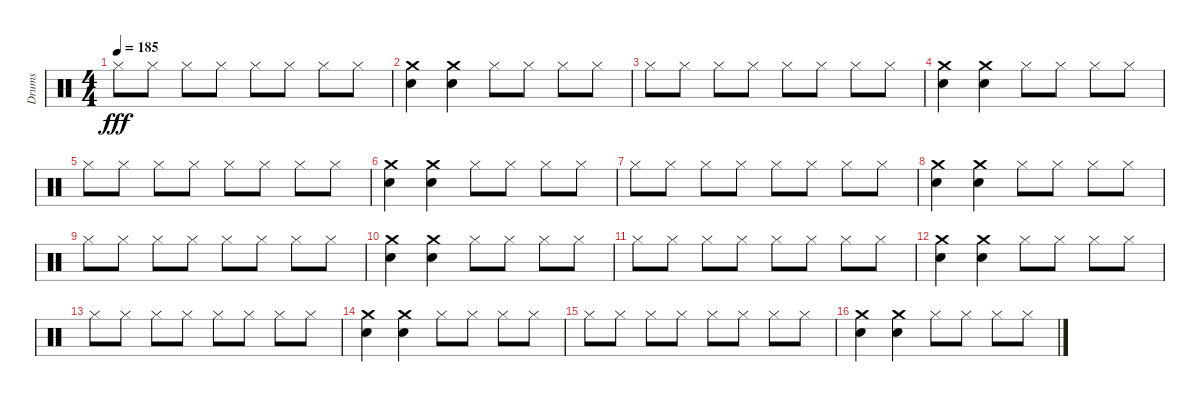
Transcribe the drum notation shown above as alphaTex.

\track ("Drums" "Drums") {instrument percussion}
\staff {score}
\articulation defaults
\ts (4 4)
\tempo 185
\clef neutral
\ks c "Hi-Hat (closed)".8{dy fff} "Hi-Hat (closed)".8 "Hi-Hat (closed)".8 "Hi-Hat (closed)".8 "Hi-Hat (closed)".8 "Hi-Hat (closed)".8 "Hi-Hat (closed)".8 "Hi-Hat (closed)".8
|
("Crash medium (hit)" "Snare (hit) 2").4 ("Crash medium (hit)" "Snare (hit) 2").4 "Hi-Hat (closed)".8 "Hi-Hat (closed)".8 "Hi-Hat (closed)".8 "Hi-Hat (closed)".8 |
"Hi-Hat (closed)".8 "Hi-Hat (closed)".8 "Hi-Hat (closed)".8 "Hi-Hat (closed)".8 "Hi-Hat (closed)".8 "Hi-Hat (closed)".8 "Hi-Hat (closed)".8 "Hi-Hat (closed)".8 |
("Crash medium (hit)" "Snare (hit) 2").4 ("Crash medium (hit)" "Snare (hit) 2").4 "Hi-Hat (closed)".8 "Hi-Hat (closed)".8 "Hi-Hat (closed)".8 "Hi-Hat (closed)".8 |
"Hi-Hat (closed)".8 "Hi-Hat (closed)".8 "Hi-Hat (closed)".8 "Hi-Hat (closed)".8 "Hi-Hat (closed)".8 "Hi-Hat (closed)".8 "Hi-Hat (closed)".8 "Hi-Hat (closed)".8 |
("Crash medium (hit)" "Snare (hit) 2").4 ("Crash medium (hit)" "Snare (hit) 2").4 "Hi-Hat (closed)".8 "Hi-Hat (closed)".8 "Hi-Hat (closed)".8 "Hi-Hat (closed)".8 |
"Hi-Hat (closed)".8 "Hi-Hat (closed)".8 "Hi-Hat (closed)".8 "Hi-Hat (closed)".8 "Hi-Hat (closed)".8 "Hi-Hat (closed)".8 "Hi-Hat (closed)".8 "Hi-Hat (closed)".8 |
("Crash medium (hit)" "Snare (hit) 2").4 ("Crash medium (hit)" "Snare (hit) 2").4 "Hi-Hat (closed)".8 "Hi-Hat (closed)".8 "Hi-Hat (closed)".8 "Hi-Hat (closed)".8 |
"Hi-Hat (closed)".8 "Hi-Hat (closed)".8 "Hi-Hat (closed)".8 "Hi-Hat (closed)".8 "Hi-Hat (closed)".8 "Hi-Hat (closed)".8 "Hi-Hat (closed)".8 "Hi-Hat (closed)".8 |
("Crash medium (hit)" "Snare (hit) 2").4 ("Crash medium (hit)" "Snare (hit) 2").4 "Hi-Hat (closed)".8 "Hi-Hat (closed)".8 "Hi-Hat (closed)".8 "Hi-Hat (closed)".8 |
"Hi-Hat (closed)".8 "Hi-Hat (closed)".8 "Hi-Hat (closed)".8 "Hi-Hat (closed)".8 "Hi-Hat (closed)".8 "Hi-Hat (closed)".8 "Hi-Hat (closed)".8 "Hi-Hat (closed)".8 |
("Crash medium (hit)" "Snare (hit) 2").4 ("Crash medium (hit)" "Snare (hit) 2").4 "Hi-Hat (closed)".8 "Hi-Hat (closed)".8 "Hi-Hat (closed)".8 "Hi-Hat (closed)".8 |
"Hi-Hat (closed)".8 "Hi-Hat (closed)".8 "Hi-Hat (closed)".8 "Hi-Hat (closed)".8 "Hi-Hat (closed)".8 "Hi-Hat (closed)".8 "Hi-Hat (closed)".8 "Hi-Hat (closed)".8 |
("Crash medium (hit)" "Snare (hit) 2").4 ("Crash medium (hit)" "Snare (hit) 2").4 "Hi-Hat (closed)".8 "Hi-Hat (closed)".8 "Hi-Hat (closed)".8 "Hi-Hat (closed)".8 |
"Hi-Hat (closed)".8 "Hi-Hat (closed)".8 "Hi-Hat (closed)".8 "Hi-Hat (closed)".8 "Hi-Hat (closed)".8 "Hi-Hat (closed)".8 "Hi-Hat (closed)".8 "Hi-Hat (closed)".8 |
("Crash medium (hit)" "Snare (hit) 2").4 ("Crash medium (hit)" "Snare (hit) 2").4 "Hi-Hat (closed)".8 "Hi-Hat (closed)".8 "Hi-Hat (closed)".8 "Hi-Hat (closed)".8
